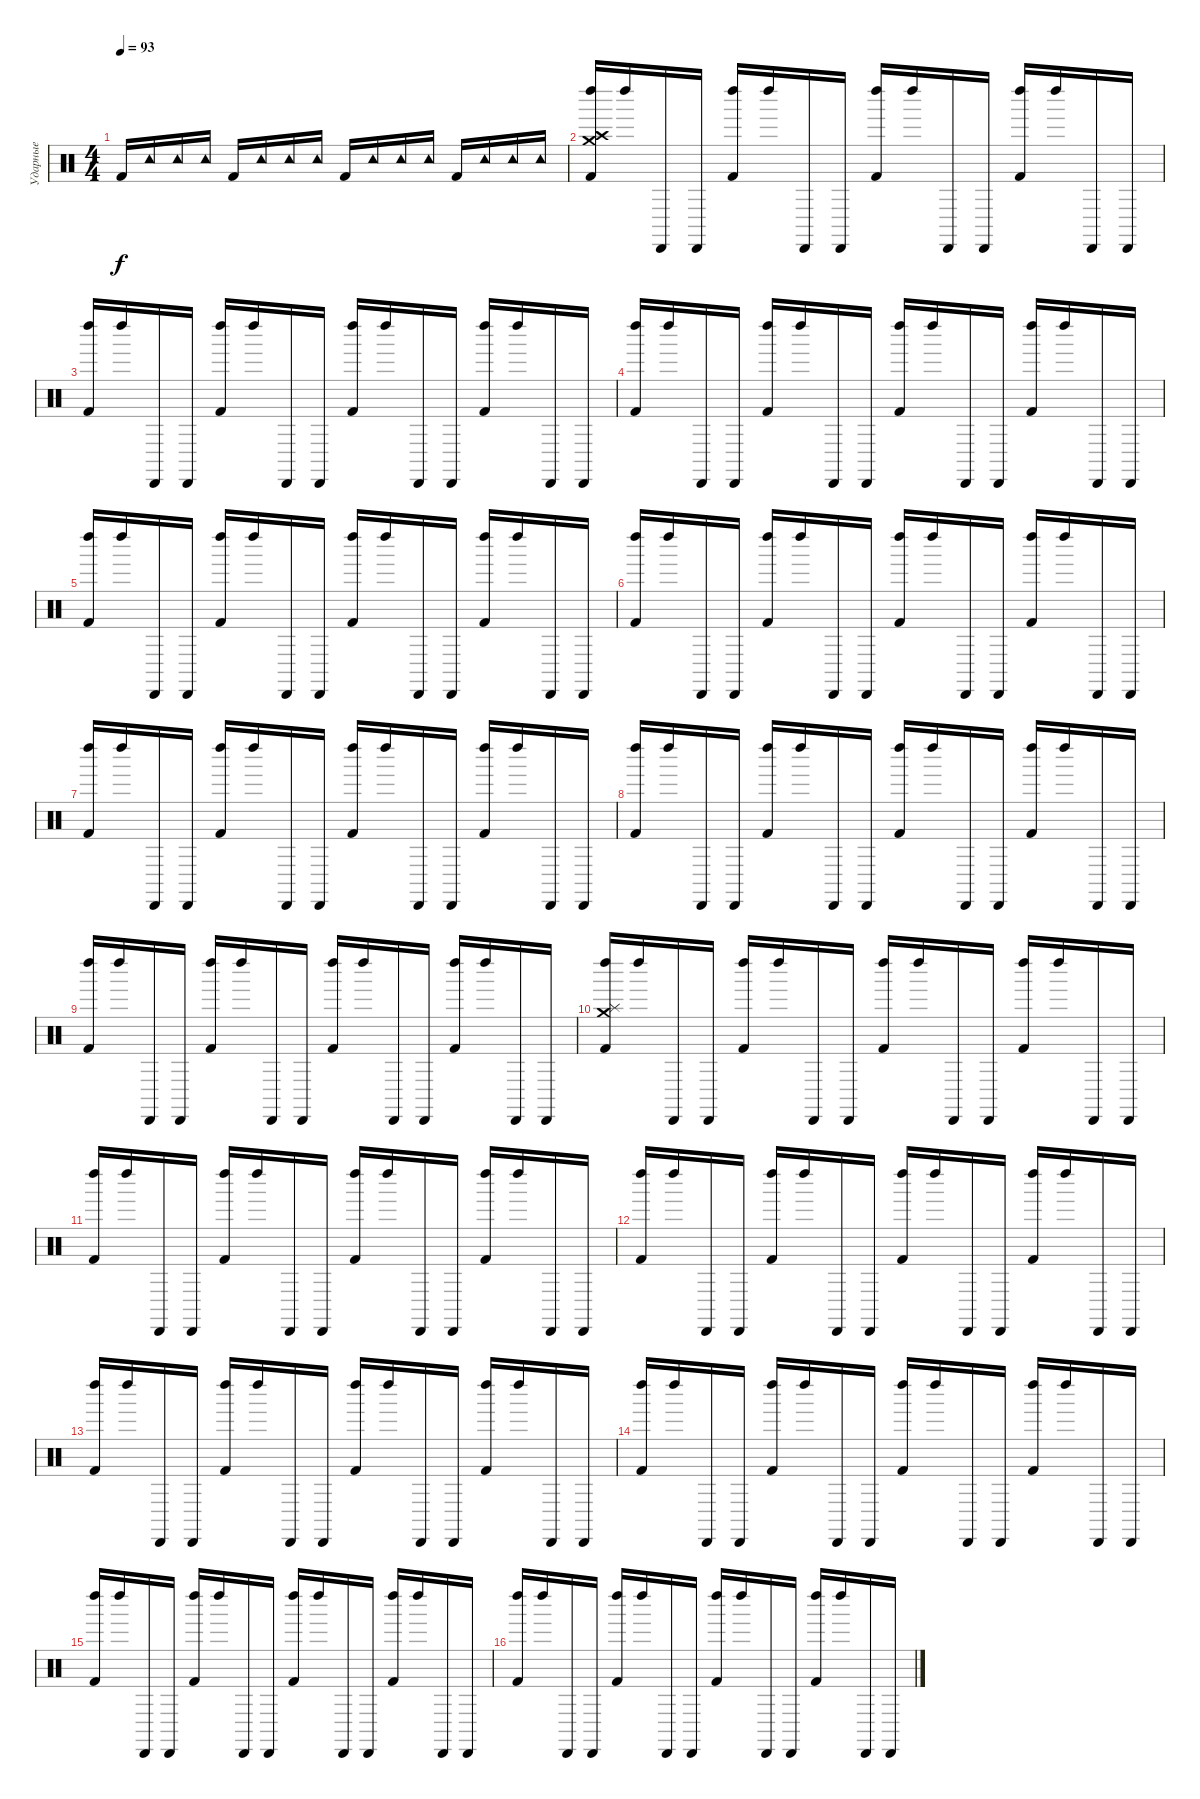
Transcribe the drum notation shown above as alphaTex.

\track ("Ударные" "Ударные") {solo instrument percussion}
\staff {score}
\articulation defaults
\ts (4 4)
\tempo 93
\clef neutral
\ks c "Kick (hit) 2".16{dy f} "Tambourine (hit)".16 "Tambourine (hit)".16 "Tambourine (hit)".16 "Kick (hit) 2".16 "Tambourine (hit)".16 "Tambourine (hit)".16 "Tambourine (hit)".16 "Kick (hit) 2".16 "Tambourine (hit)".16 "Tambourine (hit)".16 "Tambourine (hit)".16 "Kick (hit) 2".16 "Tambourine (hit)".16 "Tambourine (hit)".16 "Tambourine (hit)".16
|
("Kick (hit) 2" "Left Maraca (hit)" "Crash high (hit)" "Crash medium (hit)").16 "Left Maraca (hit)".16 "Cabasa (hit)".16 "Cabasa (hit)".16 ("Kick (hit) 2" "Left Maraca (hit)").16 "Left Maraca (hit)".16 "Cabasa (hit)".16 "Cabasa (hit)".16 ("Kick (hit) 2" "Left Maraca (hit)").16 "Left Maraca (hit)".16 "Cabasa (hit)".16 "Cabasa (hit)".16 ("Kick (hit) 2" "Left Maraca (hit)").16 "Left Maraca (hit)".16 "Cabasa (hit)".16 "Cabasa (hit)".16 |
("Kick (hit) 2" "Left Maraca (hit)").16 "Left Maraca (hit)".16 "Cabasa (hit)".16 "Cabasa (hit)".16 ("Kick (hit) 2" "Left Maraca (hit)").16 "Left Maraca (hit)".16 "Cabasa (hit)".16 "Cabasa (hit)".16 ("Kick (hit) 2" "Left Maraca (hit)").16 "Left Maraca (hit)".16 "Cabasa (hit)".16 "Cabasa (hit)".16 ("Kick (hit) 2" "Left Maraca (hit)").16 "Left Maraca (hit)".16 "Cabasa (hit)".16 "Cabasa (hit)".16 |
("Kick (hit) 2" "Left Maraca (hit)").16 "Left Maraca (hit)".16 "Cabasa (hit)".16 "Cabasa (hit)".16 ("Kick (hit) 2" "Left Maraca (hit)").16 "Left Maraca (hit)".16 "Cabasa (hit)".16 "Cabasa (hit)".16 ("Kick (hit) 2" "Left Maraca (hit)").16 "Left Maraca (hit)".16 "Cabasa (hit)".16 "Cabasa (hit)".16 ("Kick (hit) 2" "Left Maraca (hit)").16 "Left Maraca (hit)".16 "Cabasa (hit)".16 "Cabasa (hit)".16 |
("Kick (hit) 2" "Left Maraca (hit)").16 "Left Maraca (hit)".16 "Cabasa (hit)".16 "Cabasa (hit)".16 ("Kick (hit) 2" "Left Maraca (hit)").16 "Left Maraca (hit)".16 "Cabasa (hit)".16 "Cabasa (hit)".16 ("Kick (hit) 2" "Left Maraca (hit)").16 "Left Maraca (hit)".16 "Cabasa (hit)".16 "Cabasa (hit)".16 ("Kick (hit) 2" "Left Maraca (hit)").16 "Left Maraca (hit)".16 "Cabasa (hit)".16 "Cabasa (hit)".16 |
("Kick (hit) 2" "Left Maraca (hit)").16 "Left Maraca (hit)".16 "Cabasa (hit)".16 "Cabasa (hit)".16 ("Kick (hit) 2" "Left Maraca (hit)").16 "Left Maraca (hit)".16 "Cabasa (hit)".16 "Cabasa (hit)".16 ("Kick (hit) 2" "Left Maraca (hit)").16 "Left Maraca (hit)".16 "Cabasa (hit)".16 "Cabasa (hit)".16 ("Kick (hit) 2" "Left Maraca (hit)").16 "Left Maraca (hit)".16 "Cabasa (hit)".16 "Cabasa (hit)".16 |
("Kick (hit) 2" "Left Maraca (hit)").16 "Left Maraca (hit)".16 "Cabasa (hit)".16 "Cabasa (hit)".16 ("Kick (hit) 2" "Left Maraca (hit)").16 "Left Maraca (hit)".16 "Cabasa (hit)".16 "Cabasa (hit)".16 ("Kick (hit) 2" "Left Maraca (hit)").16 "Left Maraca (hit)".16 "Cabasa (hit)".16 "Cabasa (hit)".16 ("Kick (hit) 2" "Left Maraca (hit)").16 "Left Maraca (hit)".16 "Cabasa (hit)".16 "Cabasa (hit)".16 |
("Kick (hit) 2" "Left Maraca (hit)").16 "Left Maraca (hit)".16 "Cabasa (hit)".16 "Cabasa (hit)".16 ("Kick (hit) 2" "Left Maraca (hit)").16 "Left Maraca (hit)".16 "Cabasa (hit)".16 "Cabasa (hit)".16 ("Kick (hit) 2" "Left Maraca (hit)").16 "Left Maraca (hit)".16 "Cabasa (hit)".16 "Cabasa (hit)".16 ("Kick (hit) 2" "Left Maraca (hit)").16 "Left Maraca (hit)".16 "Cabasa (hit)".16 "Cabasa (hit)".16 |
("Kick (hit) 2" "Left Maraca (hit)").16 "Left Maraca (hit)".16 "Cabasa (hit)".16 "Cabasa (hit)".16 ("Kick (hit) 2" "Left Maraca (hit)").16 "Left Maraca (hit)".16 "Cabasa (hit)".16 "Cabasa (hit)".16 ("Kick (hit) 2" "Left Maraca (hit)").16 "Left Maraca (hit)".16 "Cabasa (hit)".16 "Cabasa (hit)".16 ("Kick (hit) 2" "Left Maraca (hit)").16 "Left Maraca (hit)".16 "Cabasa (hit)".16 "Cabasa (hit)".16 |
("Kick (hit) 2" "Crash medium (hit)" "Left Maraca (hit)" "Splash (hit)").16 "Left Maraca (hit)".16 "Cabasa (hit)".16 "Cabasa (hit)".16 ("Kick (hit) 2" "Left Maraca (hit)").16 "Left Maraca (hit)".16 "Cabasa (hit)".16 "Cabasa (hit)".16 ("Kick (hit) 2" "Left Maraca (hit)").16 "Left Maraca (hit)".16 "Cabasa (hit)".16 "Cabasa (hit)".16 ("Kick (hit) 2" "Left Maraca (hit)").16 "Left Maraca (hit)".16 "Cabasa (hit)".16 "Cabasa (hit)".16 |
("Kick (hit) 2" "Left Maraca (hit)").16 "Left Maraca (hit)".16 "Cabasa (hit)".16 "Cabasa (hit)".16 ("Kick (hit) 2" "Left Maraca (hit)").16 "Left Maraca (hit)".16 "Cabasa (hit)".16 "Cabasa (hit)".16 ("Kick (hit) 2" "Left Maraca (hit)").16 "Left Maraca (hit)".16 "Cabasa (hit)".16 "Cabasa (hit)".16 ("Kick (hit) 2" "Left Maraca (hit)").16 "Left Maraca (hit)".16 "Cabasa (hit)".16 "Cabasa (hit)".16 |
("Kick (hit) 2" "Left Maraca (hit)").16 "Left Maraca (hit)".16 "Cabasa (hit)".16 "Cabasa (hit)".16 ("Kick (hit) 2" "Left Maraca (hit)").16 "Left Maraca (hit)".16 "Cabasa (hit)".16 "Cabasa (hit)".16 ("Kick (hit) 2" "Left Maraca (hit)").16 "Left Maraca (hit)".16 "Cabasa (hit)".16 "Cabasa (hit)".16 ("Kick (hit) 2" "Left Maraca (hit)").16 "Left Maraca (hit)".16 "Cabasa (hit)".16 "Cabasa (hit)".16 |
("Kick (hit) 2" "Left Maraca (hit)").16 "Left Maraca (hit)".16 "Cabasa (hit)".16 "Cabasa (hit)".16 ("Kick (hit) 2" "Left Maraca (hit)").16 "Left Maraca (hit)".16 "Cabasa (hit)".16 "Cabasa (hit)".16 ("Kick (hit) 2" "Left Maraca (hit)").16 "Left Maraca (hit)".16 "Cabasa (hit)".16 "Cabasa (hit)".16 ("Kick (hit) 2" "Left Maraca (hit)").16 "Left Maraca (hit)".16 "Cabasa (hit)".16 "Cabasa (hit)".16 |
("Kick (hit) 2" "Left Maraca (hit)").16 "Left Maraca (hit)".16 "Cabasa (hit)".16 "Cabasa (hit)".16 ("Kick (hit) 2" "Left Maraca (hit)").16 "Left Maraca (hit)".16 "Cabasa (hit)".16 "Cabasa (hit)".16 ("Kick (hit) 2" "Left Maraca (hit)").16 "Left Maraca (hit)".16 "Cabasa (hit)".16 "Cabasa (hit)".16 ("Kick (hit) 2" "Left Maraca (hit)").16 "Left Maraca (hit)".16 "Cabasa (hit)".16 "Cabasa (hit)".16 |
("Kick (hit) 2" "Left Maraca (hit)").16 "Left Maraca (hit)".16 "Cabasa (hit)".16 "Cabasa (hit)".16 ("Kick (hit) 2" "Left Maraca (hit)").16 "Left Maraca (hit)".16 "Cabasa (hit)".16 "Cabasa (hit)".16 ("Kick (hit) 2" "Left Maraca (hit)").16 "Left Maraca (hit)".16 "Cabasa (hit)".16 "Cabasa (hit)".16 ("Kick (hit) 2" "Left Maraca (hit)").16 "Left Maraca (hit)".16 "Cabasa (hit)".16 "Cabasa (hit)".16 |
("Kick (hit) 2" "Left Maraca (hit)").16 "Left Maraca (hit)".16 "Cabasa (hit)".16 "Cabasa (hit)".16 ("Kick (hit) 2" "Left Maraca (hit)").16 "Left Maraca (hit)".16 "Cabasa (hit)".16 "Cabasa (hit)".16 ("Kick (hit) 2" "Left Maraca (hit)").16 "Left Maraca (hit)".16 "Cabasa (hit)".16 "Cabasa (hit)".16 ("Kick (hit) 2" "Left Maraca (hit)").16 "Left Maraca (hit)".16 "Cabasa (hit)".16 "Cabasa (hit)".16
